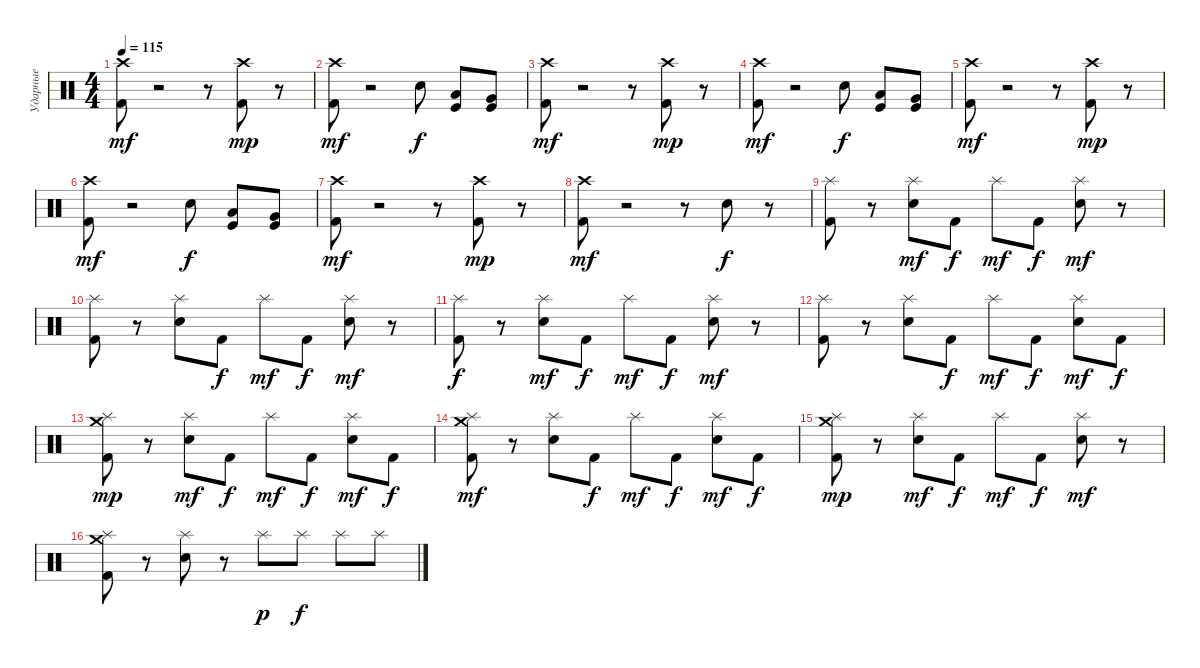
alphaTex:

\track ("Ударные" "Ударные") {instrument percussion}
\staff {score}
\articulation defaults
\ts (4 4)
\tempo 115
\clef neutral
\ks c
("Crash high (hit)" "Kick (hit) 2").8{dy mf} r.2 r.8 ("Crash high (hit)" "Kick (hit) 2").8{dy mp} r.8 |
("Crash high (hit)" "Kick (hit) 2").8{dy mf} r.2 "Snare (hit) 2".8{dy f} ("Kick (hit)" "Low Tom (hit)").8 ("Kick (hit)" "Very Low Tom (hit)").8 |
("Crash high (hit)" "Kick (hit) 2").8{dy mf} r.2 r.8 ("Crash high (hit)" "Kick (hit) 2").8{dy mp} r.8 |
("Crash high (hit)" "Kick (hit) 2").8{dy mf} r.2 "Snare (hit) 2".8{dy f} ("Kick (hit)" "Low Tom (hit)").8 ("Kick (hit)" "Very Low Tom (hit)").8 |
("Crash high (hit)" "Kick (hit) 2").8{dy mf} r.2 r.8 ("Crash high (hit)" "Kick (hit) 2").8{dy mp} r.8 |
("Crash high (hit)" "Kick (hit) 2").8{dy mf} r.2 "Snare (hit) 2".8{dy f} ("Kick (hit)" "Low Tom (hit)").8 ("Kick (hit)" "Very Low Tom (hit)").8 |
("Crash high (hit)" "Kick (hit) 2").8{dy mf} r.2 r.8 ("Crash high (hit)" "Kick (hit) 2").8{dy mp} r.8 |
("Crash high (hit)" "Kick (hit) 2").8{dy mf} r.2 r.8 "Snare (hit) 2".8{dy f} r.8 |
("Splash (hit)" "Kick (hit) 2").8 r.8 ("Splash (hit)" "Snare (hit) 2").8{dy mf} "Kick (hit) 2".8{dy f} "Splash (hit)".8{dy mf} "Kick (hit) 2".8{dy f} ("Splash (hit)" "Snare (hit) 2").8{dy mf} r.8 |
("Splash (hit)" "Kick (hit) 2").8 r.8 ("Splash (hit)" "Snare (hit) 2").8 "Kick (hit) 2".8{dy f} "Splash (hit)".8{dy mf} "Kick (hit) 2".8{dy f} ("Splash (hit)" "Snare (hit) 2").8{dy mf} r.8 |
("Splash (hit)" "Kick (hit) 2").8{dy f} r.8 ("Splash (hit)" "Snare (hit) 2").8{dy mf} "Kick (hit) 2".8{dy f} "Splash (hit)".8{dy mf} "Kick (hit) 2".8{dy f} ("Splash (hit)" "Snare (hit) 2").8{dy mf} r.8 |
("Splash (hit)" "Kick (hit) 2").8 r.8 ("Splash (hit)" "Snare (hit) 2").8 "Kick (hit) 2".8{dy f} "Splash (hit)".8{dy mf} "Kick (hit) 2".8{dy f} ("Splash (hit)" "Snare (hit) 2").8{dy mf} "Kick (hit) 2".8{dy f} |
("Crash medium (hit)" "Splash (hit)" "Kick (hit) 2").8{dy mp} r.8 ("Splash (hit)" "Snare (hit) 2").8{dy mf} "Kick (hit) 2".8{dy f} "Splash (hit)".8{dy mf} "Kick (hit) 2".8{dy f} ("Splash (hit)" "Snare (hit) 2").8{dy mf} "Kick (hit) 2".8{dy f} |
("Crash medium (hit)" "Splash (hit)" "Kick (hit) 2").8{dy mf} r.8 ("Splash (hit)" "Snare (hit) 2").8 "Kick (hit) 2".8{dy f} "Splash (hit)".8{dy mf} "Kick (hit) 2".8{dy f} ("Splash (hit)" "Snare (hit) 2").8{dy mf} "Kick (hit) 2".8{dy f} |
("Crash medium (hit)" "Splash (hit)" "Kick (hit) 2").8{dy mp} r.8 ("Splash (hit)" "Snare (hit) 2").8{dy mf} "Kick (hit) 2".8{dy f} "Splash (hit)".8{dy mf} "Kick (hit) 2".8{dy f} ("Splash (hit)" "Snare (hit) 2").8{dy mf} r.8 |
("Crash medium (hit)" "Splash (hit)" "Kick (hit) 2").8 r.8 ("Splash (hit)" "Snare (hit) 2").8 r.8 "Splash (hit)".8{dy p} "Splash (hit)".8{dy f} "Splash (hit)".8 "Splash (hit)".8
